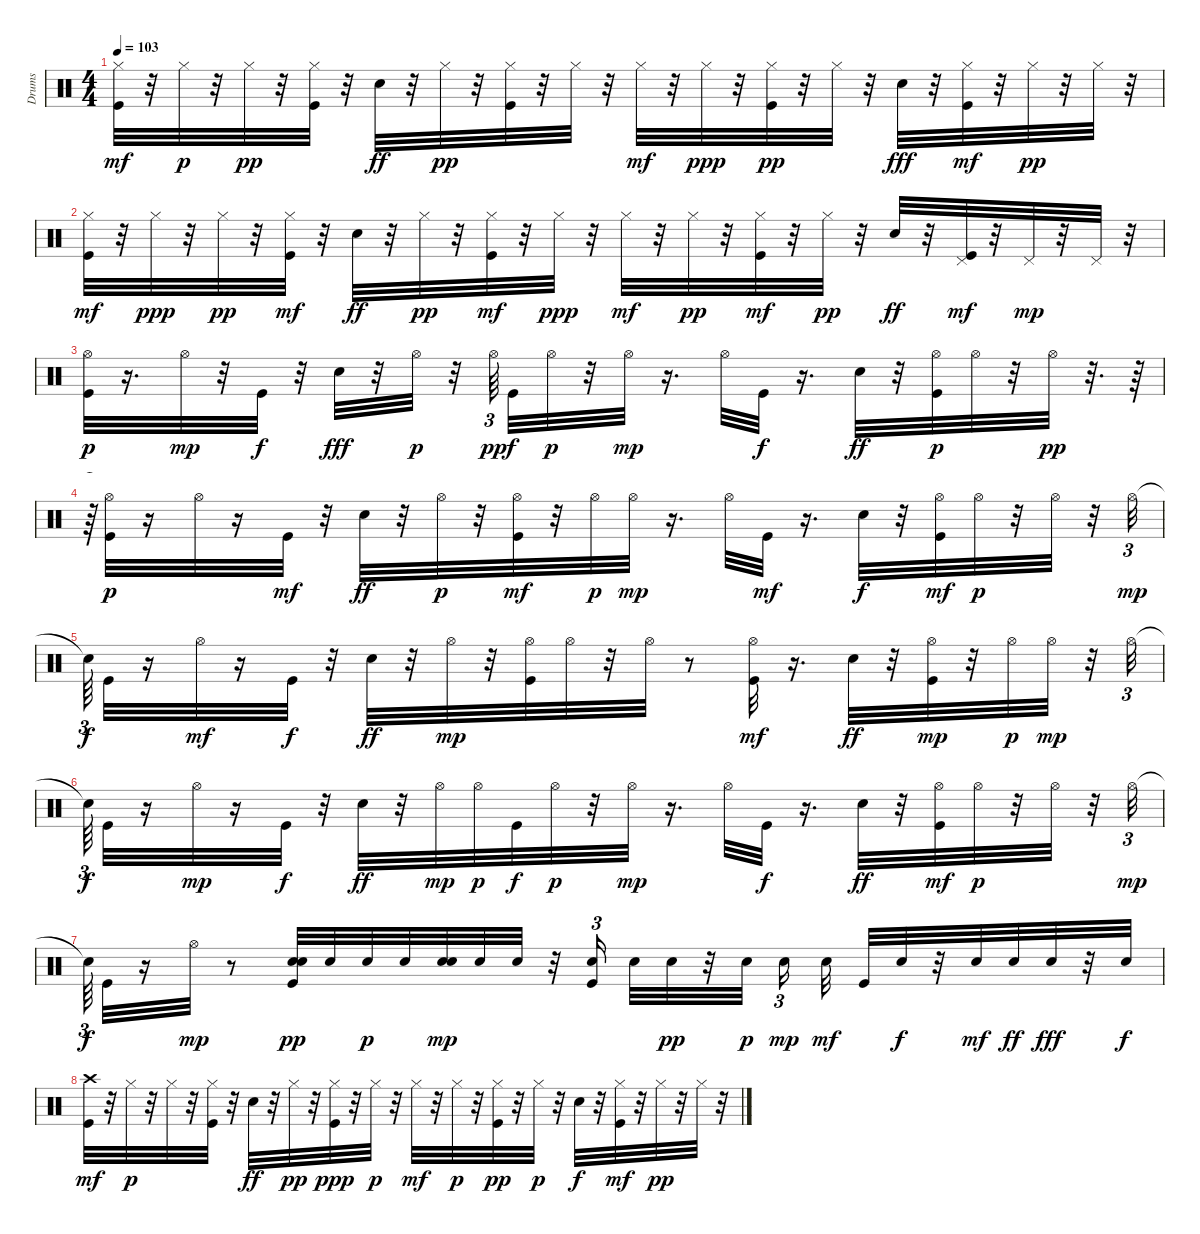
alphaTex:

\track ("Drums" "Drums") {instrument percussion}
\staff {score}
\articulation defaults
\ts (4 4)
\tempo 103
\clef neutral
\ks c
("Hi-Hat (closed)" "Kick (hit)").32{dy mf} r.32 "Hi-Hat (closed)".32{dy p} r.32 "Hi-Hat (closed)".32{dy pp} r.32 ("Kick (hit)" "Hi-Hat (closed)").32 r.32 "Snare (hit) 2".32{dy ff} r.32 "Hi-Hat (closed)".32{dy pp} r.32 ("Hi-Hat (closed)" "Kick (hit)").32 r.32 "Hi-Hat (closed)".32 r.32 "Hi-Hat (closed)".32{dy mf} r.32 "Hi-Hat (closed)".32{dy ppp} r.32 ("Kick (hit)" "Hi-Hat (closed)").32{dy pp} r.32 "Hi-Hat (closed)".32 r.32 "Snare (hit) 2".32{dy fff} r.32 ("Hi-Hat (closed)" "Kick (hit)").32{dy mf} r.32 "Hi-Hat (closed)".32{dy pp} r.32 "Hi-Hat (closed)".32 r.32 |
("Hi-Hat (closed)" "Kick (hit)").32{dy mf} r.32 "Hi-Hat (closed)".32{dy ppp} r.32 "Hi-Hat (closed)".32{dy pp} r.32 ("Hi-Hat (closed)" "Kick (hit)").32{dy mf} r.32 "Snare (hit) 2".32{dy ff} r.32 "Hi-Hat (closed)".32{dy pp} r.32 ("Hi-Hat (closed)" "Kick (hit)").32{dy mf} r.32 "Hi-Hat (closed)".32{dy ppp} r.32 "Hi-Hat (closed)".32{dy mf} r.32 "Hi-Hat (closed)".32{dy pp} r.32 ("Hi-Hat (closed)" "Kick (hit)").32{dy mf} r.32 "Hi-Hat (closed)".32{dy pp} r.32 "Snare (hit) 2".32{dy ff} r.32 ("Pedal Hi-Hat (hit)" "Kick (hit)").32{dy mf} r.32 "Pedal Hi-Hat (hit)".32{dy mp} r.32 "Pedal Hi-Hat (hit)".32 r.32 |
("Hi-Hat (open)" "Kick (hit)").32{dy p} r.16{d} "Hi-Hat (open)".32{dy mp} r.32 "Kick (hit)".32{dy f} r.32 "Snare (hit) 2".32{dy fff} r.32 "Hi-Hat (open)".32{dy p} r.32 "Hi-Hat (open)".64{tu (3 2) dy pp} "Kick (hit)".32{dy f} "Hi-Hat (open)".32{dy p} r.32 "Hi-Hat (open)".32{dy mp} r.16{d} "Hi-Hat (open)".32 "Kick (hit)".32{dy f} r.16{d} "Snare (hit) 2".32{dy ff} r.32 ("Hi-Hat (open)" "Kick (hit)").32{dy p} "Hi-Hat (open)".32 r.32 "Hi-Hat (open)".32{dy pp} r.32{d} r.64 |
r.64{tu (3 2)} ("Hi-Hat (open)" "Kick (hit)").32{dy p} r.16 "Hi-Hat (open)".32 r.16 "Kick (hit)".32{dy mf} r.32 "Snare (hit) 2".32{dy ff} r.32 "Hi-Hat (open)".32{dy p} r.32 ("Hi-Hat (open)" "Kick (hit)").32{dy mf} r.32 "Hi-Hat (open)".32{dy p} "Hi-Hat (open)".32{dy mp} r.16{d} "Hi-Hat (open)".32 "Kick (hit)".32{dy mf} r.16{d} "Snare (hit) 2".32{dy f} r.32 ("Hi-Hat (open)" "Kick (hit)").32{dy mf} "Hi-Hat (open)".32{dy p} r.32 "Hi-Hat (open)".32 r.32 "Hi-Hat (open)".32{tu (3 2) dy mp} |
"Snare (hit)"{t}.64{tu (3 2) dy f} "Kick (hit)".32 r.16 "Hi-Hat (open)".32{dy mf} r.16 "Kick (hit)".32{dy f} r.32 "Snare (hit) 2".32{dy ff} r.32 "Hi-Hat (open)".32{dy mp} r.32 ("Hi-Hat (open)" "Kick (hit)").32 "Hi-Hat (open)".32 r.32 "Hi-Hat (open)".32 r.8 ("Hi-Hat (open)" "Kick (hit)").32{dy mf} r.16{d} "Snare (hit) 2".32{dy ff} r.32 ("Kick (hit)" "Hi-Hat (open)").32{dy mp} r.32 "Hi-Hat (open)".32{dy p} "Hi-Hat (open)".32{dy mp} r.32 "Hi-Hat (open)".32{tu (3 2)} |
"Snare (hit)"{t}.64{tu (3 2) dy f} "Kick (hit)".32 r.16 "Hi-Hat (open)".32{dy mp} r.16 "Kick (hit)".32{dy f} r.32 "Snare (hit) 2".32{dy ff} r.32 "Hi-Hat (open)".32{dy mp} "Hi-Hat (open)".32{dy p} "Kick (hit)".32{dy f} "Hi-Hat (open)".32{dy p} r.32 "Hi-Hat (open)".32{dy mp} r.16{d} "Hi-Hat (open)".32 "Kick (hit)".32{dy f} r.16{d} "Snare (hit) 2".32{dy ff} r.32 ("Hi-Hat (open)" "Kick (hit)").32{dy mf} "Hi-Hat (open)".32{dy p} r.32 "Hi-Hat (open)".32 r.32 "Hi-Hat (open)".32{tu (3 2) dy mp} |
"Snare (hit)"{t}.64{tu (3 2) dy f} "Kick (hit)".32 r.16 "Hi-Hat (open)".32{dy mp} r.8 ("Snare (hit) 2" "Kick (hit)" "Snare (hit) 2").32{dy pp} "Snare (hit) 2".32 "Snare (hit) 2".32{dy p} "Snare (hit) 2".32 ("Snare (hit) 2" "Snare (hit) 2").32{dy mp} "Snare (hit) 2".32 "Snare (hit) 2".32 r.32 ("Kick (hit)" "Snare (hit) 2").16{tu (3 2)} "Snare (hit) 2".32 "Snare (hit) 2".32{dy pp} r.32 "Snare (hit) 2".32{dy p} "Snare (hit) 2".16{tu (3 2) dy mp} "Snare (hit) 2".32{dy mf} "Kick (hit)".32 "Snare (hit) 2".32{dy f} r.32 "Snare (hit) 2".32{dy mf} "Snare (hit) 2".32{dy ff} "Snare (hit) 2".32{dy fff} r.32 "Snare (hit) 2".32{dy f} |
("Crash high (hit)" "Kick (hit)").32{dy mf} r.32 "Hi-Hat (closed)".32{dy p} r.32 "Hi-Hat (closed)".32 r.32 ("Kick (hit)" "Hi-Hat (closed)").32 r.32 "Snare (hit) 2".32{dy ff} r.32 "Hi-Hat (closed)".32{dy pp} r.32 ("Hi-Hat (closed)" "Kick (hit)").32{dy ppp} r.32 "Hi-Hat (closed)".32{dy p} r.32 "Hi-Hat (closed)".32{dy mf} r.32 "Hi-Hat (closed)".32{dy p} r.32 ("Kick (hit)" "Hi-Hat (closed)").32{dy pp} r.32 "Hi-Hat (closed)".32{dy p} r.32 "Snare (hit) 2".32{dy f} r.32 ("Hi-Hat (closed)" "Kick (hit)").32{dy mf} r.32 "Hi-Hat (closed)".32{dy pp} r.32 "Hi-Hat (closed)".32 r.32
